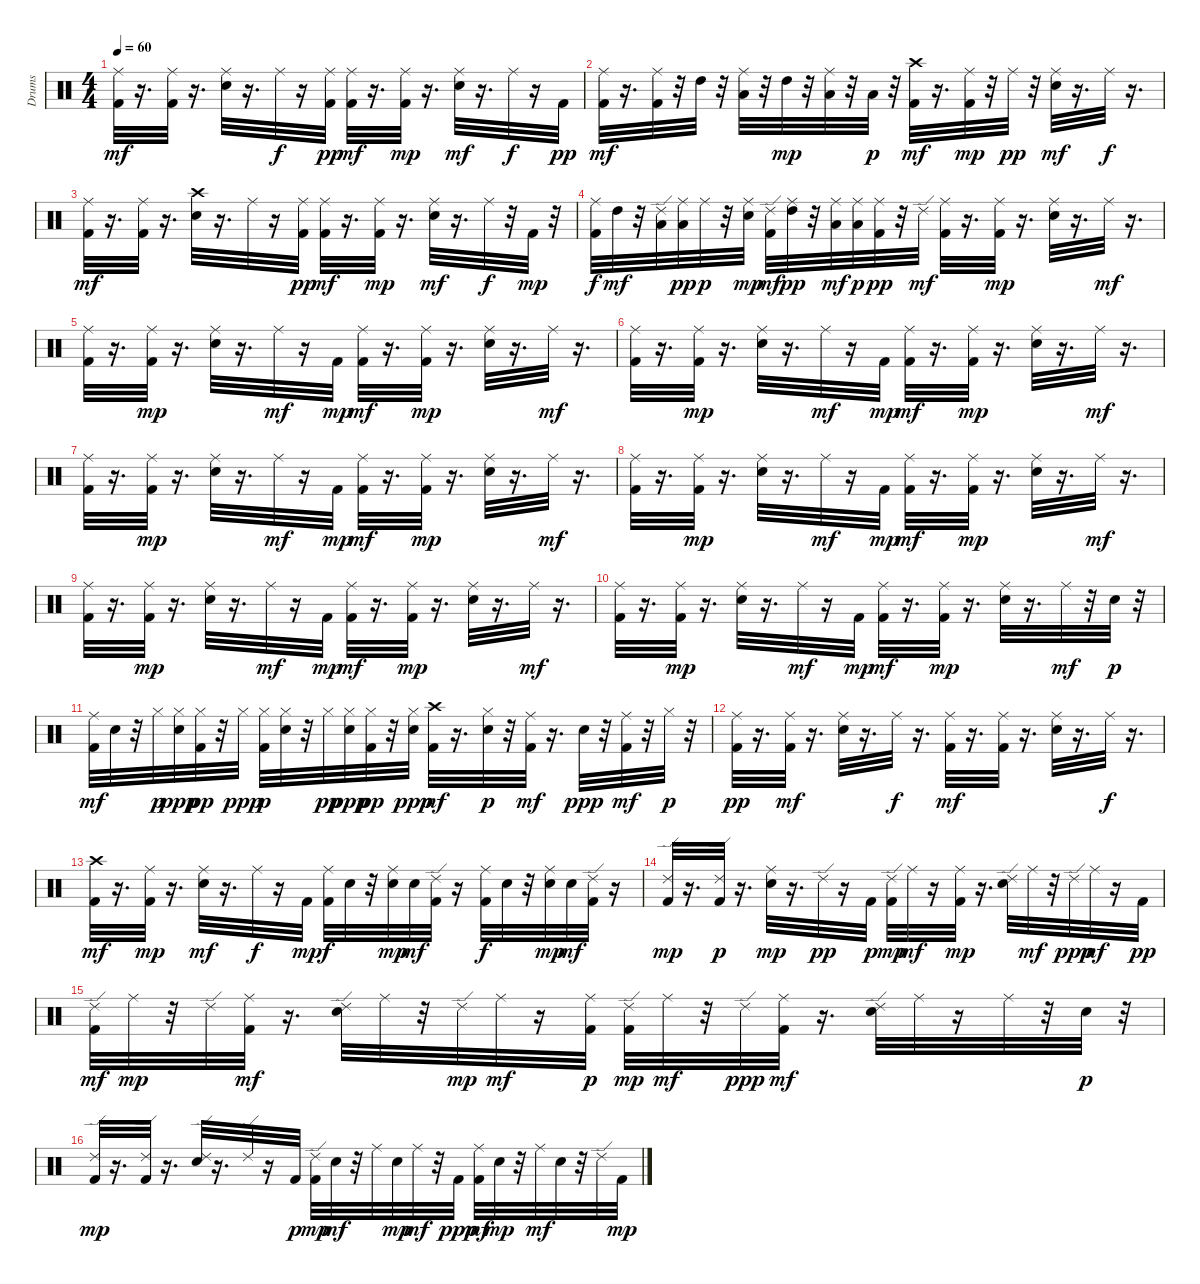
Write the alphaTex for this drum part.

\track ("Drums" "Drums") {instrument percussion}
\staff {score}
\articulation defaults
\ts (4 4)
\tempo 60
\clef neutral
\ks c
("Kick (hit) 2" "Ride (middle)").32{dy mf} r.16{d} ("Kick (hit) 2" "Ride (middle)").32 r.16{d} ("Snare (hit) 2" "Ride (middle)").32 r.16{d} "Ride (middle)".32{dy f} r.16 ("Kick (hit) 2" "Ride (middle)").32{dy pp} ("Kick (hit) 2" "Ride (middle)").32{dy mf} r.16{d} ("Ride (middle)" "Kick (hit) 2").32{dy mp} r.16{d} ("Snare (hit) 2" "Ride (middle)").32{dy mf} r.16{d} "Ride (middle)".32{dy f} r.16 "Kick (hit) 2".32{dy pp} |
("Kick (hit) 2" "Ride (middle)").32{dy mf} r.16{d} ("Kick (hit) 2" "Ride (middle)").32 r.32 "High Tom (hit)".32 r.32 ("Low Tom (hit)" "Ride (middle)").32 r.32 "High Tom (hit)".32{dy mp} r.32 ("Ride (middle)" "Low Floor Tom (hit)").32 r.32 "Low Floor Tom (hit)".32{dy p} r.32 ("Kick (hit) 2" "Crash high (hit)").32{dy mf} r.16{d} ("Ride (middle)" "Kick (hit) 2").32{dy mp} r.32 "Ride (middle)".32{dy pp} r.32 ("Snare (hit) 2" "Ride (middle)").32{dy mf} r.16{d} "Ride (middle)".32{dy f} r.16{d} |
("Kick (hit) 2" "Ride (middle)").32{dy mf} r.16{d} ("Kick (hit) 2" "Ride (middle)").32 r.16{d} ("Snare (hit) 2" "Crash high (hit)").32 r.16{d} "Ride (middle)".32 r.16 ("Kick (hit) 2" "Ride (middle)").32{dy pp} ("Kick (hit) 2" "Ride (middle)").32{dy mf} r.16{d} ("Ride (middle)" "Kick (hit) 2").32{dy mp} r.16{d} ("Snare (hit) 2" "Ride (middle)").32{dy mf} r.16{d} "Ride (middle)".32{dy f} r.32 "Kick (hit) 2".32{dy mp} r.32 |
("Kick (hit) 2" "Ride (middle)").32{dy f} "High Tom (hit)".32{dy mf} r.32 ("Low Tom (hit)" "Ride (edge) 2").32 ("Low Floor Tom (hit)" "Ride (middle)").32{dy pp} "Ride (middle)".32{dy p} r.32 ("Snare (hit) 2" "Ride (middle)").32{dy mp} ("Kick (hit) 2" "Ride (edge) 2").32{dy mf} ("High Tom (hit)" "Ride (middle)").32{dy pp} r.32 ("Ride (middle)" "Low Tom (hit)").32{dy mf} ("Low Floor Tom (hit)" "Ride (middle)").32{dy p} ("Kick (hit) 2" "Ride (middle)").32{dy pp} r.32 "Ride (edge) 2".32{dy mf} ("Kick (hit) 2" "Ride (middle)").32 r.16{d} ("Kick (hit) 2" "Ride (middle)").32{dy mp} r.16{d} ("Ride (middle)" "Snare (hit) 2").32 r.16{d} "Ride (middle)".32{dy mf} r.16{d} |
("Kick (hit) 2" "Ride (middle)").32 r.16{d} ("Kick (hit) 2" "Ride (middle)").32{dy mp} r.16{d} ("Ride (middle)" "Snare (hit) 2").32 r.16{d} "Ride (middle)".32{dy mf} r.16 "Kick (hit) 2".32{dy mp} ("Kick (hit) 2" "Ride (middle)").32{dy mf} r.16{d} ("Kick (hit) 2" "Ride (middle)").32{dy mp} r.16{d} ("Ride (middle)" "Snare (hit) 2").32 r.16{d} "Ride (middle)".32{dy mf} r.16{d} |
("Kick (hit) 2" "Ride (middle)").32 r.16{d} ("Kick (hit) 2" "Ride (middle)").32{dy mp} r.16{d} ("Ride (middle)" "Snare (hit) 2").32 r.16{d} "Ride (middle)".32{dy mf} r.16 "Kick (hit) 2".32{dy mp} ("Kick (hit) 2" "Ride (middle)").32{dy mf} r.16{d} ("Kick (hit) 2" "Ride (middle)").32{dy mp} r.16{d} ("Ride (middle)" "Snare (hit) 2").32 r.16{d} "Ride (middle)".32{dy mf} r.16{d} |
("Kick (hit) 2" "Ride (middle)").32 r.16{d} ("Kick (hit) 2" "Ride (middle)").32{dy mp} r.16{d} ("Ride (middle)" "Snare (hit) 2").32 r.16{d} "Ride (middle)".32{dy mf} r.16 "Kick (hit) 2".32{dy mp} ("Kick (hit) 2" "Ride (middle)").32{dy mf} r.16{d} ("Kick (hit) 2" "Ride (middle)").32{dy mp} r.16{d} ("Ride (middle)" "Snare (hit) 2").32 r.16{d} "Ride (middle)".32{dy mf} r.16{d} |
("Kick (hit) 2" "Ride (middle)").32 r.16{d} ("Kick (hit) 2" "Ride (middle)").32{dy mp} r.16{d} ("Ride (middle)" "Snare (hit) 2").32 r.16{d} "Ride (middle)".32{dy mf} r.16 "Kick (hit) 2".32{dy mp} ("Kick (hit) 2" "Ride (middle)").32{dy mf} r.16{d} ("Kick (hit) 2" "Ride (middle)").32{dy mp} r.16{d} ("Ride (middle)" "Snare (hit) 2").32 r.16{d} "Ride (middle)".32{dy mf} r.16{d} |
("Kick (hit) 2" "Ride (middle)").32 r.16{d} ("Kick (hit) 2" "Ride (middle)").32{dy mp} r.16{d} ("Ride (middle)" "Snare (hit) 2").32 r.16{d} "Ride (middle)".32{dy mf} r.16 "Kick (hit) 2".32{dy mp} ("Kick (hit) 2" "Ride (middle)").32{dy mf} r.16{d} ("Kick (hit) 2" "Ride (middle)").32{dy mp} r.16{d} ("Ride (middle)" "Snare (hit) 2").32 r.16{d} "Ride (middle)".32{dy mf} r.16{d} |
("Kick (hit) 2" "Ride (middle)").32 r.16{d} ("Kick (hit) 2" "Ride (middle)").32{dy mp} r.16{d} ("Ride (middle)" "Snare (hit) 2").32 r.16{d} "Ride (middle)".32{dy mf} r.16 "Kick (hit) 2".32{dy mp} ("Kick (hit) 2" "Ride (middle)").32{dy mf} r.16{d} ("Kick (hit) 2" "Ride (middle)").32{dy mp} r.16{d} ("Ride (middle)" "Snare (hit) 2").32 r.16{d} "Ride (middle)".32{dy mf} r.32 "Snare (hit) 2".32{dy p} r.32 |
("Kick (hit) 2" "Ride (middle)").32{dy mf} "Snare (hit) 2".32 r.32 "Hi-Hat (closed)".32{dy p} ("Snare (hit) 2" "Hi-Hat (closed)").32{dy ppp} ("Kick (hit) 2" "Hi-Hat (closed)").32{dy pp} r.32 "Hi-Hat (closed)".32{dy ppp} ("Kick (hit) 2" "Hi-Hat (closed)").32{dy p} ("Snare (hit) 2" "Hi-Hat (closed)").32 r.32 "Hi-Hat (closed)".32{dy pp} ("Snare (hit) 2" "Hi-Hat (closed)").32{dy ppp} ("Kick (hit) 2" "Hi-Hat (closed)").32{dy pp} r.32 ("Snare (hit) 2" "Hi-Hat (closed)").32{dy ppp} ("Kick (hit) 2" "Crash high (hit)").32{dy mf} r.16{d} ("Snare (hit) 2" "Hi-Hat (closed)").32{dy p} r.32 ("Kick (hit) 2" "Ride (middle)").32{dy mf} r.16{d} "Snare (hit) 2".32{dy ppp} r.32 ("Ride (middle)" "Kick (hit) 2").32{dy mf} r.32 "Hi-Hat (closed)".32{dy p} r.32 |
("Ride (middle)" "Kick (hit) 2").32{dy pp} r.16{d} ("Kick (hit) 2" "Ride (middle)").32{dy mf} r.16{d} ("Snare (hit) 2" "Ride (middle)").32 r.16{d} "Ride (middle)".32{dy f} r.16{d} ("Kick (hit) 2" "Ride (middle)").32{dy mf} r.16{d} ("Kick (hit) 2" "Ride (middle)").32 r.16{d} ("Snare (hit) 2" "Ride (middle)").32 r.16{d} "Ride (middle)".32{dy f} r.16{d} |
("Kick (hit) 2" "Crash high (hit)").32{dy mf} r.16{d} ("Ride (middle)" "Kick (hit) 2").32{dy mp} r.16{d} ("Snare (hit) 2" "Ride (middle)").32{dy mf} r.16{d} "Ride (middle)".32{dy f} r.16 "Kick (hit) 2".32{dy mp} ("Kick (hit) 2" "Ride (middle)").32{dy f} "Snare (hit) 2".32 r.32 ("Snare (hit) 2" "Ride (middle)").32{dy mp} "Snare (hit) 2".32{dy mf} ("Kick (hit) 2" "Ride (edge) 2").32 r.16 ("Kick (hit) 2" "Ride (middle)").32{dy f} "Snare (hit) 2".32 r.32 ("Snare (hit) 2" "Ride (middle)").32{dy mp} "Snare (hit) 2".32{dy mf} ("Kick (hit) 2" "Ride (edge) 2").32 r.16 |
("Kick (hit) 2" "Ride (edge) 2").32{dy mp} r.16{d} ("Kick (hit) 2" "Ride (edge) 2").32{dy p} r.16{d} ("Snare (hit) 2" "Ride (middle)").32{dy mp} r.16{d} "Ride (edge) 2".32{dy pp} r.16 "Kick (hit) 2".32{dy p} ("Kick (hit) 2" "Ride (edge) 2").32{dy mp} "Ride (middle)".32{dy mf} r.16 ("Ride (middle)" "Kick (hit) 2").32{dy mp} r.16{d} ("Ride (edge) 2" "Snare (hit) 2").32 "Ride (middle)".32{dy mf} r.32 "Ride (edge) 2".32{dy ppp} "Ride (middle)".32{dy mf} r.16 "Kick (hit) 2".32{dy pp} |
("Kick (hit) 2" "Ride (edge) 2").32{dy mf} "Ride (middle)".32{dy mp} r.32 "Ride (edge) 2".32 ("Kick (hit) 2" "Ride (middle)").32{dy mf} r.16{d} ("Snare (hit) 2" "Ride (edge) 2").32 "Ride (middle)".32 r.32 "Ride (edge) 2".32{dy mp} "Ride (middle)".32{dy mf} r.16 ("Kick (hit) 2" "Ride (middle)").32{dy p} ("Kick (hit) 2" "Ride (edge) 2").32{dy mp} "Ride (middle)".32{dy mf} r.32 "Ride (edge) 2".32{dy ppp} ("Kick (hit) 2" "Ride (middle)").32{dy mf} r.16{d} ("Snare (hit) 2" "Ride (edge) 2").32 "Ride (middle)".32 r.16 "Ride (middle)".32 r.32 "Snare (hit) 2".32{dy p} r.32 |
("Kick (hit) 2" "Ride (edge) 2").32{dy mp} r.16{d} ("Kick (hit) 2" "Ride (edge) 2").32 r.16{d} ("Snare (hit) 2" "Ride (edge) 2").32 r.16{d} "Ride (edge) 2".32 r.16 "Kick (hit) 2".32{dy p} ("Kick (hit) 2" "Ride (edge) 2").32{dy mp} "Snare (hit) 2".32{dy mf} r.32 "Ride (middle)".32 "Snare (hit) 2".32{dy mp} "Ride (middle)".32{dy mf} r.32 "Kick (hit) 2".32{dy ppp} ("Kick (hit) 2" "Ride (middle)").32{dy mf} "Snare (hit) 2".32{dy mp} r.32 "Ride (middle)".32{dy mf} "Snare (hit) 2".32 r.32 "Ride (edge) 2".32 "Kick (hit) 2".32{dy mp}
